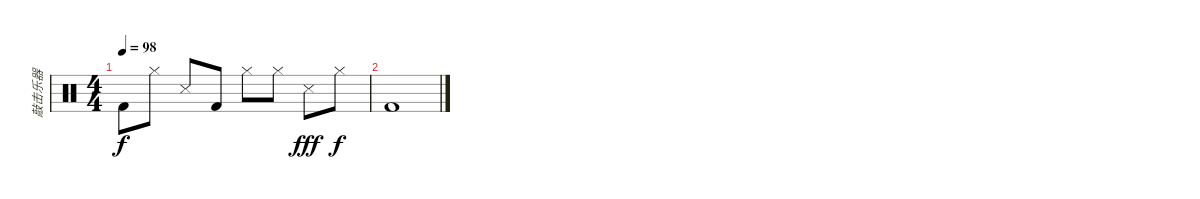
\track ("敲击乐器" "敲击乐器") {instrument percussion}
\staff {score}
\articulation defaults
\ts (4 4)
\tempo 98
\clef neutral
\ks c "Kick (hit) 2".8{dy f} "Hi-Hat (closed)".8 "Snare (side stick) 3".8 "Kick (hit) 2".8 "Hi-Hat (closed)".8 "Hi-Hat (closed)".8 "Snare (side stick) 3".8{dy fff} "Hi-Hat (closed)".8{dy f}
|
"Kick (hit) 2".1
